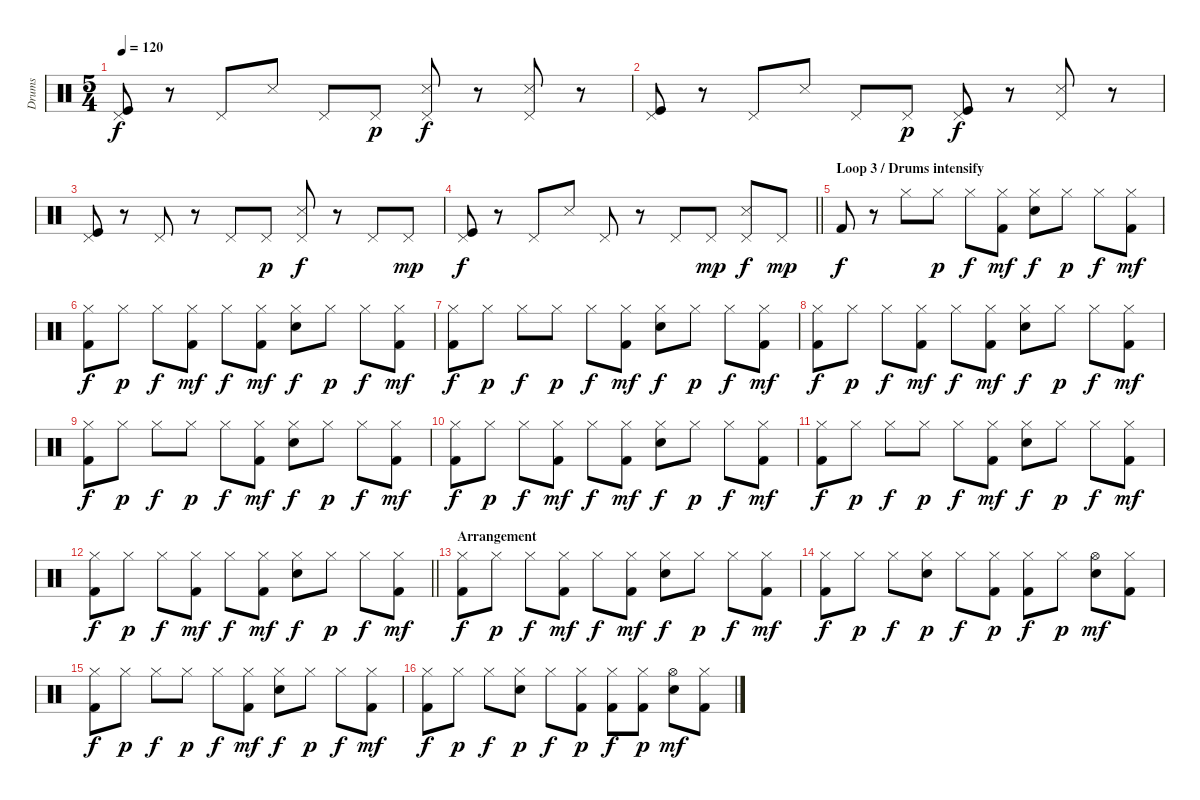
\track ("Drums" "Drums") {instrument percussion}
\staff {score}
\articulation defaults
\ts (5 4)
\tempo 120
\clef neutral
\ks c
("Pedal Hi-Hat (hit)" "Kick (hit)").8{dy f} r.8 "Pedal Hi-Hat (hit)".8 "Snare (side stick) 3".8 "Pedal Hi-Hat (hit)".8 "Pedal Hi-Hat (hit)".8{dy p} ("Pedal Hi-Hat (hit)" "Snare (side stick) 3").8{dy f} r.8 ("Pedal Hi-Hat (hit)" "Snare (side stick) 3").8 r.8 |
("Pedal Hi-Hat (hit)" "Kick (hit)").8 r.8 "Pedal Hi-Hat (hit)".8 "Snare (side stick) 3".8 "Pedal Hi-Hat (hit)".8 "Pedal Hi-Hat (hit)".8{dy p} ("Pedal Hi-Hat (hit)" "Kick (hit)").8{dy f} r.8 ("Pedal Hi-Hat (hit)" "Snare (side stick) 3").8 r.8 |
("Pedal Hi-Hat (hit)" "Kick (hit)").8 r.8 "Pedal Hi-Hat (hit)".8 r.8 "Pedal Hi-Hat (hit)".8 "Pedal Hi-Hat (hit)".8{dy p} ("Pedal Hi-Hat (hit)" "Snare (side stick) 3").8{dy f} r.8 "Pedal Hi-Hat (hit)".8 "Pedal Hi-Hat (hit)".8{dy mp} |
\barLineRight lightlight
("Pedal Hi-Hat (hit)" "Kick (hit)").8{dy f} r.8 "Pedal Hi-Hat (hit)".8 "Snare (side stick) 3".8 "Pedal Hi-Hat (hit)".8 r.8 "Pedal Hi-Hat (hit)".8 "Pedal Hi-Hat (hit)".8{dy mp} ("Pedal Hi-Hat (hit)" "Snare (side stick) 3").8{dy f} "Pedal Hi-Hat (hit)".8{dy mp} |
\section ("" "Loop 3 / Drums intensify")
"Kick (hit) 2".8{dy f} r.8 "Hi-Hat (closed)".8 "Hi-Hat (closed)".8{dy p} "Hi-Hat (closed)".8{dy f} ("Hi-Hat (closed)" "Kick (hit) 2").8{dy mf} ("Hi-Hat (closed)" "Electric Snare (hit)").8{dy f} "Hi-Hat (closed)".8{dy p} "Hi-Hat (closed)".8{dy f} ("Hi-Hat (closed)" "Kick (hit) 2").8{dy mf} |
("Hi-Hat (closed)" "Kick (hit) 2").8{dy f} "Hi-Hat (closed)".8{dy p} "Hi-Hat (closed)".8{dy f} ("Hi-Hat (closed)" "Kick (hit) 2").8{dy mf} "Hi-Hat (closed)".8{dy f} ("Hi-Hat (closed)" "Kick (hit) 2").8{dy mf} ("Hi-Hat (closed)" "Electric Snare (hit)").8{dy f} "Hi-Hat (closed)".8{dy p} "Hi-Hat (closed)".8{dy f} ("Hi-Hat (closed)" "Kick (hit) 2").8{dy mf} |
("Hi-Hat (closed)" "Kick (hit) 2").8{dy f} "Hi-Hat (closed)".8{dy p} "Hi-Hat (closed)".8{dy f} "Hi-Hat (closed)".8{dy p} "Hi-Hat (closed)".8{dy f} ("Hi-Hat (closed)" "Kick (hit) 2").8{dy mf} ("Hi-Hat (closed)" "Electric Snare (hit)").8{dy f} "Hi-Hat (closed)".8{dy p} "Hi-Hat (closed)".8{dy f} ("Hi-Hat (closed)" "Kick (hit) 2").8{dy mf} |
("Hi-Hat (closed)" "Kick (hit) 2").8{dy f} "Hi-Hat (closed)".8{dy p} "Hi-Hat (closed)".8{dy f} ("Hi-Hat (closed)" "Kick (hit) 2").8{dy mf} "Hi-Hat (closed)".8{dy f} ("Hi-Hat (closed)" "Kick (hit) 2").8{dy mf} ("Hi-Hat (closed)" "Electric Snare (hit)").8{dy f} "Hi-Hat (closed)".8{dy p} "Hi-Hat (closed)".8{dy f} ("Hi-Hat (closed)" "Kick (hit) 2").8{dy mf} |
("Hi-Hat (closed)" "Kick (hit) 2").8{dy f} "Hi-Hat (closed)".8{dy p} "Hi-Hat (closed)".8{dy f} "Hi-Hat (closed)".8{dy p} "Hi-Hat (closed)".8{dy f} ("Hi-Hat (closed)" "Kick (hit) 2").8{dy mf} ("Hi-Hat (closed)" "Electric Snare (hit)").8{dy f} "Hi-Hat (closed)".8{dy p} "Hi-Hat (closed)".8{dy f} ("Hi-Hat (closed)" "Kick (hit) 2").8{dy mf} |
("Hi-Hat (closed)" "Kick (hit) 2").8{dy f} "Hi-Hat (closed)".8{dy p} "Hi-Hat (closed)".8{dy f} ("Hi-Hat (closed)" "Kick (hit) 2").8{dy mf} "Hi-Hat (closed)".8{dy f} ("Hi-Hat (closed)" "Kick (hit) 2").8{dy mf} ("Hi-Hat (closed)" "Electric Snare (hit)").8{dy f} "Hi-Hat (closed)".8{dy p} "Hi-Hat (closed)".8{dy f} ("Hi-Hat (closed)" "Kick (hit) 2").8{dy mf} |
("Hi-Hat (closed)" "Kick (hit) 2").8{dy f} "Hi-Hat (closed)".8{dy p} "Hi-Hat (closed)".8{dy f} "Hi-Hat (closed)".8{dy p} "Hi-Hat (closed)".8{dy f} ("Hi-Hat (closed)" "Kick (hit) 2").8{dy mf} ("Hi-Hat (closed)" "Electric Snare (hit)").8{dy f} "Hi-Hat (closed)".8{dy p} "Hi-Hat (closed)".8{dy f} ("Hi-Hat (closed)" "Kick (hit) 2").8{dy mf} |
\barLineRight lightlight
("Hi-Hat (closed)" "Kick (hit) 2").8{dy f} "Hi-Hat (closed)".8{dy p} "Hi-Hat (closed)".8{dy f} ("Hi-Hat (closed)" "Kick (hit) 2").8{dy mf} "Hi-Hat (closed)".8{dy f} ("Hi-Hat (closed)" "Kick (hit) 2").8{dy mf} ("Hi-Hat (closed)" "Electric Snare (hit)").8{dy f} "Hi-Hat (closed)".8{dy p} "Hi-Hat (closed)".8{dy f} ("Hi-Hat (closed)" "Kick (hit) 2").8{dy mf} |
\section ("" "Arrangement")
("Hi-Hat (closed)" "Kick (hit) 2").8{dy f} "Hi-Hat (closed)".8{dy p} "Hi-Hat (closed)".8{dy f} ("Hi-Hat (closed)" "Kick (hit) 2").8{dy mf} "Hi-Hat (closed)".8{dy f} ("Hi-Hat (closed)" "Kick (hit) 2").8{dy mf} ("Hi-Hat (closed)" "Electric Snare (hit)").8{dy f} "Hi-Hat (closed)".8{dy p} "Hi-Hat (closed)".8{dy f} ("Hi-Hat (closed)" "Kick (hit) 2").8{dy mf} |
("Hi-Hat (closed)" "Kick (hit) 2").8{dy f} "Hi-Hat (closed)".8{dy p} "Hi-Hat (closed)".8{dy f} ("Hi-Hat (closed)" "Electric Snare (hit)").8{dy p} "Hi-Hat (closed)".8{dy f} ("Hi-Hat (closed)" "Kick (hit) 2").8{dy p} ("Hi-Hat (closed)" "Kick (hit) 2").8{dy f} "Hi-Hat (closed)".8{dy p} ("Hi-Hat (open)" "Electric Snare (hit)").8{dy mf} ("Hi-Hat (closed)" "Kick (hit) 2").8 |
("Hi-Hat (closed)" "Kick (hit) 2").8{dy f} "Hi-Hat (closed)".8{dy p} "Hi-Hat (closed)".8{dy f} "Hi-Hat (closed)".8{dy p} "Hi-Hat (closed)".8{dy f} ("Hi-Hat (closed)" "Kick (hit) 2").8{dy mf} ("Hi-Hat (closed)" "Electric Snare (hit)").8{dy f} "Hi-Hat (closed)".8{dy p} "Hi-Hat (closed)".8{dy f} ("Hi-Hat (closed)" "Kick (hit) 2").8{dy mf} |
("Hi-Hat (closed)" "Kick (hit) 2").8{dy f} "Hi-Hat (closed)".8{dy p} "Hi-Hat (closed)".8{dy f} ("Hi-Hat (closed)" "Electric Snare (hit)").8{dy p} "Hi-Hat (closed)".8{dy f} ("Hi-Hat (closed)" "Kick (hit) 2").8{dy p} ("Hi-Hat (closed)" "Kick (hit) 2").8{dy f} ("Hi-Hat (closed)" "Kick (hit) 2").8{dy p} ("Hi-Hat (open)" "Electric Snare (hit)").8{dy mf} ("Hi-Hat (closed)" "Kick (hit) 2").8
